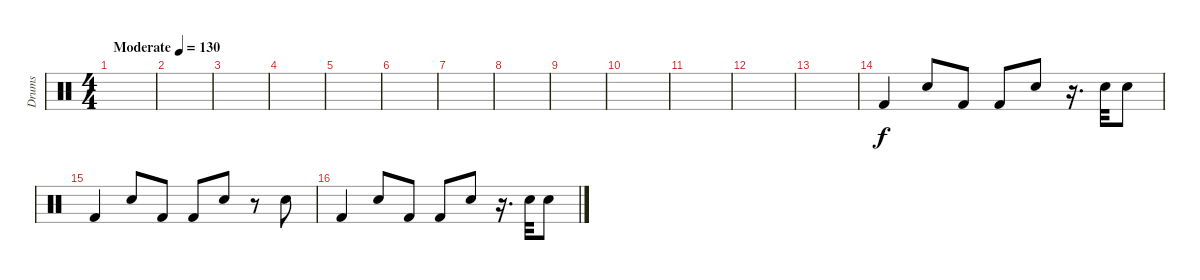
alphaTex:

\track ("Drums" "Drums") {instrument percussion}
\staff {score}
\articulation defaults
\ts (4 4)
\tempo (130 "Moderate")
\clef neutral
\ks c
|
|
|
|
|
|
|
|
|
|
|
|
|
"Kick (hit) 2".4 "Snare (hit) 2".8 "Kick (hit) 2".8 "Kick (hit) 2".8 "Snare (hit) 2".8 r.16{d} "Snare (hit) 2".32 "Snare (hit) 2".8 |
"Kick (hit) 2".4 "Snare (hit) 2".8 "Kick (hit) 2".8 "Kick (hit) 2".8 "Snare (hit) 2".8 r.8 "Snare (hit) 2".8 |
"Kick (hit) 2".4 "Snare (hit) 2".8 "Kick (hit) 2".8 "Kick (hit) 2".8 "Snare (hit) 2".8 r.16{d} "Snare (hit) 2".32 "Snare (hit) 2".8
